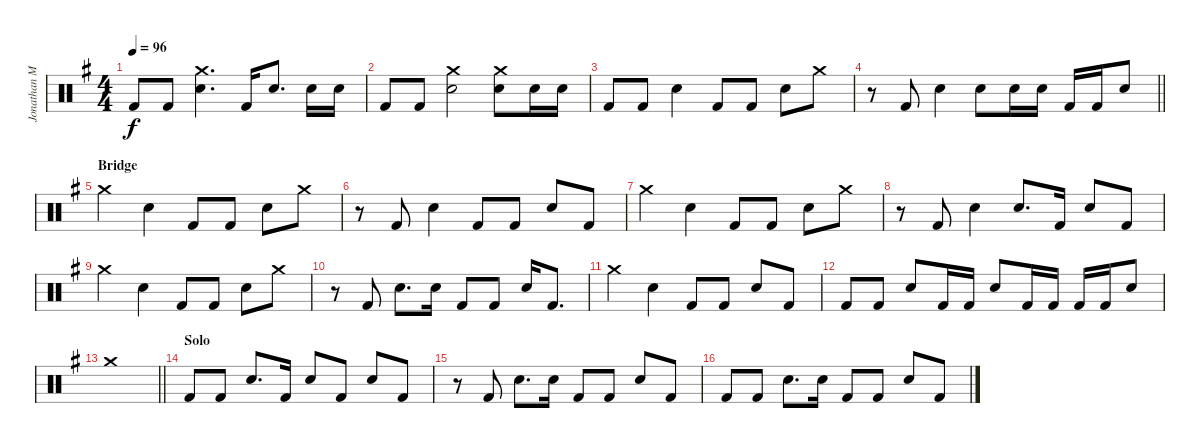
\track ("Jonathan Mover (Drums)" "Jonathan M") {instrument percussion}
\staff {score}
\articulation defaults
\ts (4 4)
\tempo 96
\clef neutral
\ks g "Kick (hit) 2".8{dy f} "Kick (hit) 2".8
("Crash medium (hit)" "Electric Snare (hit)").4{d} "Kick (hit) 2".16 "Electric Snare (hit)".8{d} "Electric Snare (hit)".16 "Electric Snare (hit)".16 |
"Kick (hit) 2".8 "Kick (hit) 2".8 ("Crash medium (hit)" "Electric Snare (hit)").2 ("Crash medium (hit)" "Electric Snare (hit)").8 "Electric Snare (hit)".16 "Electric Snare (hit)".16 |
"Kick (hit) 2".8 "Kick (hit) 2".8 "Electric Snare (hit)".4 "Kick (hit) 2".8 "Kick (hit) 2".8 "Electric Snare (hit)".8 "Crash medium (hit)".8 |
\barLineRight lightlight
r.8 "Kick (hit) 2".8 "Electric Snare (hit)".4 "Electric Snare (hit)".8 "Electric Snare (hit)".16 "Electric Snare (hit)".16 "Kick (hit) 2".16 "Kick (hit) 2".16 "Electric Snare (hit)".8 |
\section ("" "Bridge")
"Crash medium (hit)".4 "Electric Snare (hit)".4 "Kick (hit) 2".8 "Kick (hit) 2".8 "Electric Snare (hit)".8 "Crash medium (hit)".8 |
r.8 "Kick (hit) 2".8 "Electric Snare (hit)".4 "Kick (hit) 2".8 "Kick (hit) 2".8 "Electric Snare (hit)".8 "Kick (hit) 2".8 |
"Crash medium (hit)".4 "Electric Snare (hit)".4 "Kick (hit) 2".8 "Kick (hit) 2".8 "Electric Snare (hit)".8 "Crash medium (hit)".8 |
r.8 "Kick (hit) 2".8 "Electric Snare (hit)".4 "Electric Snare (hit)".8{d} "Kick (hit) 2".16 "Electric Snare (hit)".8 "Kick (hit) 2".8 |
"Crash medium (hit)".4 "Electric Snare (hit)".4 "Kick (hit) 2".8 "Kick (hit) 2".8 "Electric Snare (hit)".8 "Crash medium (hit)".8 |
r.8 "Kick (hit) 2".8 "Electric Snare (hit)".8{d} "Electric Snare (hit)".16 "Kick (hit) 2".8 "Kick (hit) 2".8 "Electric Snare (hit)".16 "Kick (hit) 2".8{d} |
"Crash medium (hit)".4 "Electric Snare (hit)".4 "Kick (hit) 2".8 "Kick (hit) 2".8 "Electric Snare (hit)".8 "Kick (hit) 2".8 |
"Kick (hit) 2".8 "Kick (hit) 2".8 "Electric Snare (hit)".8 "Kick (hit) 2".16 "Kick (hit) 2".16 "Electric Snare (hit)".8 "Kick (hit) 2".16 "Kick (hit) 2".16 "Kick (hit) 2".16 "Kick (hit) 2".16 "Electric Snare (hit)".8 |
\barLineRight lightlight "Crash medium (hit)".1
|
\section ("" "Solo")
"Kick (hit) 2".8{volume 12} "Kick (hit) 2".8 "Electric Snare (hit)".8{d} "Kick (hit) 2".16 "Electric Snare (hit)".8 "Kick (hit) 2".8 "Electric Snare (hit)".8 "Kick (hit) 2".8 |
r.8 "Kick (hit) 2".8 "Electric Snare (hit)".8{d} "Electric Snare (hit)".16 "Kick (hit) 2".8 "Kick (hit) 2".8 "Electric Snare (hit)".8 "Kick (hit) 2".8 |
"Kick (hit) 2".8 "Kick (hit) 2".8 "Electric Snare (hit)".8{d} "Electric Snare (hit)".16 "Kick (hit) 2".8 "Kick (hit) 2".8 "Electric Snare (hit)".8 "Kick (hit) 2".8
